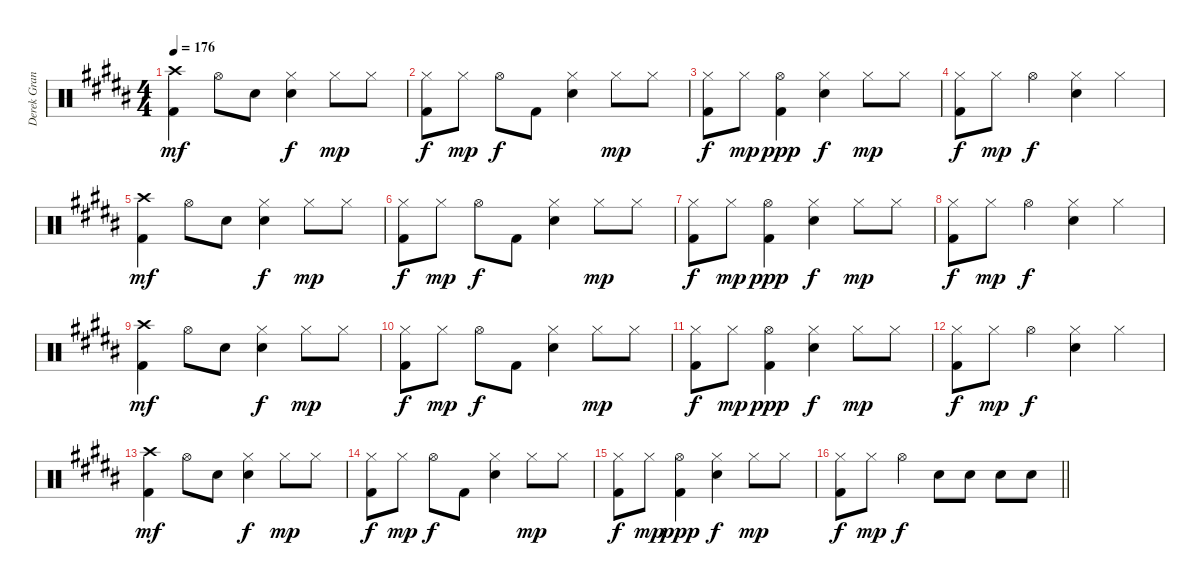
\track ("Derek Grant - Drums" "Derek Gran") {instrument percussion}
\staff {score}
\articulation defaults
\ts (4 4)
\tempo 176
\clef neutral
\ks b
("Crash high (hit)" "Kick (hit) 2").4{dy mf} "Hi-Hat (open)".8 "Snare (hit) 2".8 ("Hi-Hat (closed)" "Snare (hit) 2").4{dy f} "Hi-Hat (closed)".8{dy mp} "Hi-Hat (closed)".8 |
("Hi-Hat (closed)" "Kick (hit) 2").8{dy f} "Hi-Hat (closed)".8{dy mp} "Hi-Hat (open)".8{dy f} "Kick (hit) 2".8 ("Hi-Hat (closed)" "Snare (hit) 2").4 "Hi-Hat (closed)".8{dy mp} "Hi-Hat (closed)".8 |
("Hi-Hat (closed)" "Kick (hit) 2").8{dy f} "Hi-Hat (closed)".8{dy mp} ("Hi-Hat (open)" "Kick (hit) 2").4{dy ppp} ("Snare (hit) 2" "Hi-Hat (closed)").4{dy f} "Hi-Hat (closed)".8{dy mp} "Hi-Hat (closed)".8 |
("Hi-Hat (closed)" "Kick (hit) 2").8{dy f} "Hi-Hat (closed)".8{dy mp} "Hi-Hat (open)".4{dy f} ("Hi-Hat (closed)" "Snare (hit) 2").4 "Hi-Hat (closed)".4 |
("Crash high (hit)" "Kick (hit) 2").4{dy mf} "Hi-Hat (open)".8 "Snare (hit) 2".8 ("Hi-Hat (closed)" "Snare (hit) 2").4{dy f} "Hi-Hat (closed)".8{dy mp} "Hi-Hat (closed)".8 |
("Hi-Hat (closed)" "Kick (hit) 2").8{dy f} "Hi-Hat (closed)".8{dy mp} "Hi-Hat (open)".8{dy f} "Kick (hit) 2".8 ("Hi-Hat (closed)" "Snare (hit) 2").4 "Hi-Hat (closed)".8{dy mp} "Hi-Hat (closed)".8 |
("Hi-Hat (closed)" "Kick (hit) 2").8{dy f} "Hi-Hat (closed)".8{dy mp} ("Hi-Hat (open)" "Kick (hit) 2").4{dy ppp} ("Snare (hit) 2" "Hi-Hat (closed)").4{dy f} "Hi-Hat (closed)".8{dy mp} "Hi-Hat (closed)".8 |
("Hi-Hat (closed)" "Kick (hit) 2").8{dy f} "Hi-Hat (closed)".8{dy mp} "Hi-Hat (open)".4{dy f} ("Hi-Hat (closed)" "Snare (hit) 2").4 "Hi-Hat (closed)".4 |
("Crash high (hit)" "Kick (hit) 2").4{dy mf} "Hi-Hat (open)".8 "Snare (hit) 2".8 ("Hi-Hat (closed)" "Snare (hit) 2").4{dy f} "Hi-Hat (closed)".8{dy mp} "Hi-Hat (closed)".8 |
("Hi-Hat (closed)" "Kick (hit) 2").8{dy f} "Hi-Hat (closed)".8{dy mp} "Hi-Hat (open)".8{dy f} "Kick (hit) 2".8 ("Hi-Hat (closed)" "Snare (hit) 2").4 "Hi-Hat (closed)".8{dy mp} "Hi-Hat (closed)".8 |
("Hi-Hat (closed)" "Kick (hit) 2").8{dy f} "Hi-Hat (closed)".8{dy mp} ("Hi-Hat (open)" "Kick (hit) 2").4{dy ppp} ("Snare (hit) 2" "Hi-Hat (closed)").4{dy f} "Hi-Hat (closed)".8{dy mp} "Hi-Hat (closed)".8 |
("Hi-Hat (closed)" "Kick (hit) 2").8{dy f} "Hi-Hat (closed)".8{dy mp} "Hi-Hat (open)".4{dy f} ("Hi-Hat (closed)" "Snare (hit) 2").4 "Hi-Hat (closed)".4 |
("Crash high (hit)" "Kick (hit) 2").4{dy mf} "Hi-Hat (open)".8 "Snare (hit) 2".8 ("Hi-Hat (closed)" "Snare (hit) 2").4{dy f} "Hi-Hat (closed)".8{dy mp} "Hi-Hat (closed)".8 |
("Hi-Hat (closed)" "Kick (hit) 2").8{dy f} "Hi-Hat (closed)".8{dy mp} "Hi-Hat (open)".8{dy f} "Kick (hit) 2".8 ("Hi-Hat (closed)" "Snare (hit) 2").4 "Hi-Hat (closed)".8{dy mp} "Hi-Hat (closed)".8 |
("Hi-Hat (closed)" "Kick (hit) 2").8{dy f} "Hi-Hat (closed)".8{dy mp} ("Hi-Hat (open)" "Kick (hit) 2").4{dy ppp} ("Snare (hit) 2" "Hi-Hat (closed)").4{dy f} "Hi-Hat (closed)".8{dy mp} "Hi-Hat (closed)".8 |
\barLineRight lightlight
("Hi-Hat (closed)" "Kick (hit) 2").8{dy f} "Hi-Hat (closed)".8{dy mp} "Hi-Hat (open)".4{dy f} "Snare (hit) 2".8 "Snare (hit) 2".8 "Snare (hit) 2".8 "Snare (hit) 2".8
